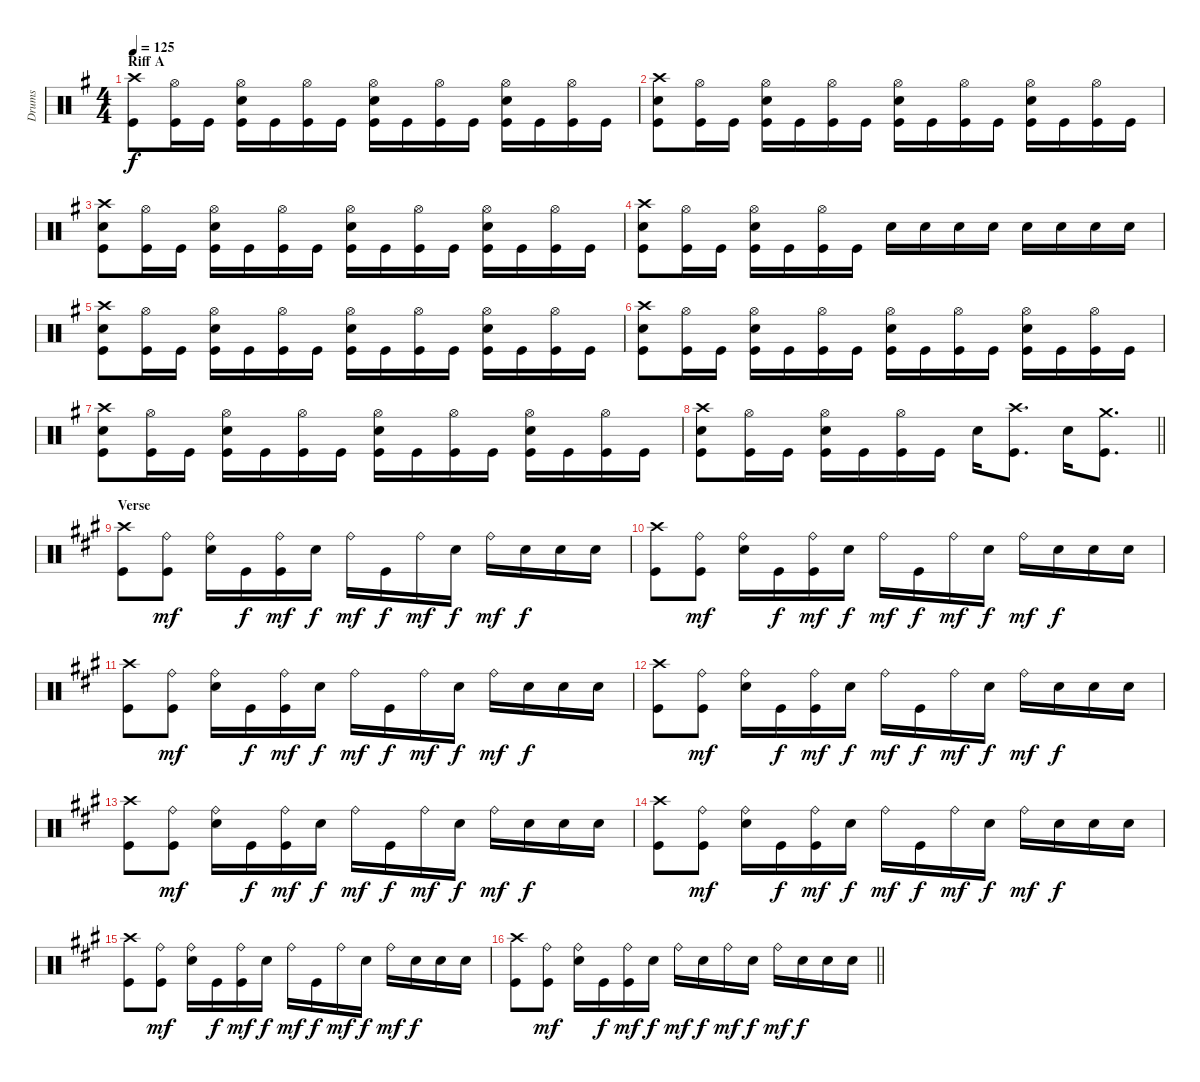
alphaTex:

\track ("Drums" "Drums") {instrument percussion}
\staff {score}
\articulation defaults
\ts (4 4)
\section ("" "Riff A")
\tempo 125
\clef neutral
\ks eminor
("Crash high (hit)" "Kick (hit)").8{dy f} ("Hi-Hat (open)" "Kick (hit)").16 "Kick (hit)".16 ("Hi-Hat (open)" "Snare (hit) 2" "Kick (hit)").16 "Kick (hit)".16 ("Hi-Hat (open)" "Kick (hit)").16 "Kick (hit)".16 ("Hi-Hat (open)" "Snare (hit) 2" "Kick (hit)").16 "Kick (hit)".16 ("Hi-Hat (open)" "Kick (hit)").16 "Kick (hit)".16 ("Hi-Hat (open)" "Snare (hit) 2" "Kick (hit)").16 "Kick (hit)".16 ("Hi-Hat (open)" "Kick (hit)").16 "Kick (hit)".16 |
("Crash high (hit)" "Snare (hit) 2" "Kick (hit)").8 ("Hi-Hat (open)" "Kick (hit)").16 "Kick (hit)".16 ("Hi-Hat (open)" "Snare (hit) 2" "Kick (hit)").16 "Kick (hit)".16 ("Hi-Hat (open)" "Kick (hit)").16 "Kick (hit)".16 ("Hi-Hat (open)" "Snare (hit) 2" "Kick (hit)").16 "Kick (hit)".16 ("Hi-Hat (open)" "Kick (hit)").16 "Kick (hit)".16 ("Hi-Hat (open)" "Snare (hit) 2" "Kick (hit)").16 "Kick (hit)".16 ("Hi-Hat (open)" "Kick (hit)").16 "Kick (hit)".16 |
("Crash high (hit)" "Snare (hit) 2" "Kick (hit)").8 ("Hi-Hat (open)" "Kick (hit)").16 "Kick (hit)".16 ("Hi-Hat (open)" "Snare (hit) 2" "Kick (hit)").16 "Kick (hit)".16 ("Hi-Hat (open)" "Kick (hit)").16 "Kick (hit)".16 ("Hi-Hat (open)" "Snare (hit) 2" "Kick (hit)").16 "Kick (hit)".16 ("Hi-Hat (open)" "Kick (hit)").16 "Kick (hit)".16 ("Hi-Hat (open)" "Snare (hit) 2" "Kick (hit)").16 "Kick (hit)".16 ("Hi-Hat (open)" "Kick (hit)").16 "Kick (hit)".16 |
("Crash high (hit)" "Snare (hit) 2" "Kick (hit)").8 ("Hi-Hat (open)" "Kick (hit)").16 "Kick (hit)".16 ("Hi-Hat (open)" "Snare (hit) 2" "Kick (hit)").16 "Kick (hit)".16 ("Hi-Hat (open)" "Kick (hit)").16 "Kick (hit)".16 "Snare (hit) 2".16 "Snare (hit) 2".16 "Snare (hit) 2".16 "Snare (hit) 2".16 "Snare (hit) 2".16 "Snare (hit) 2".16 "Snare (hit) 2".16 "Snare (hit) 2".16 |
("Crash high (hit)" "Snare (hit) 2" "Kick (hit)").8 ("Hi-Hat (open)" "Kick (hit)").16 "Kick (hit)".16 ("Hi-Hat (open)" "Snare (hit) 2" "Kick (hit)").16 "Kick (hit)".16 ("Hi-Hat (open)" "Kick (hit)").16 "Kick (hit)".16 ("Hi-Hat (open)" "Snare (hit) 2" "Kick (hit)").16 "Kick (hit)".16 ("Hi-Hat (open)" "Kick (hit)").16 "Kick (hit)".16 ("Hi-Hat (open)" "Snare (hit) 2" "Kick (hit)").16 "Kick (hit)".16 ("Hi-Hat (open)" "Kick (hit)").16 "Kick (hit)".16 |
("Crash high (hit)" "Snare (hit) 2" "Kick (hit)").8 ("Hi-Hat (open)" "Kick (hit)").16 "Kick (hit)".16 ("Hi-Hat (open)" "Snare (hit) 2" "Kick (hit)").16 "Kick (hit)".16 ("Hi-Hat (open)" "Kick (hit)").16 "Kick (hit)".16 ("Hi-Hat (open)" "Snare (hit) 2" "Kick (hit)").16 "Kick (hit)".16 ("Hi-Hat (open)" "Kick (hit)").16 "Kick (hit)".16 ("Hi-Hat (open)" "Snare (hit) 2" "Kick (hit)").16 "Kick (hit)".16 ("Hi-Hat (open)" "Kick (hit)").16 "Kick (hit)".16 |
("Crash high (hit)" "Snare (hit) 2" "Kick (hit)").8 ("Hi-Hat (open)" "Kick (hit)").16 "Kick (hit)".16 ("Hi-Hat (open)" "Snare (hit) 2" "Kick (hit)").16 "Kick (hit)".16 ("Hi-Hat (open)" "Kick (hit)").16 "Kick (hit)".16 ("Hi-Hat (open)" "Snare (hit) 2" "Kick (hit)").16 "Kick (hit)".16 ("Hi-Hat (open)" "Kick (hit)").16 "Kick (hit)".16 ("Hi-Hat (open)" "Snare (hit) 2" "Kick (hit)").16 "Kick (hit)".16 ("Hi-Hat (open)" "Kick (hit)").16 "Kick (hit)".16 |
\barLineRight lightlight
("Crash high (hit)" "Snare (hit) 2" "Kick (hit)").8 ("Hi-Hat (open)" "Kick (hit)").16 "Kick (hit)".16 ("Hi-Hat (open)" "Snare (hit) 2" "Kick (hit)").16 "Kick (hit)".16 ("Hi-Hat (open)" "Kick (hit)").16 "Kick (hit)".16 "Snare (hit) 2".16 ("Crash high (hit)" "Kick (hit)").8{d} "Snare (hit) 2".16 ("Crash medium (hit)" "Kick (hit)").8{d} |
\section ("" "Verse")
\ks f#minor
("Crash high (hit)" "Kick (hit)").8 ("Ride (bell)" "Kick (hit)").8{dy mf} ("Ride (bell)" "Snare (hit) 2").16 "Kick (hit)".16{dy f} ("Ride (bell)" "Kick (hit)").16{dy mf} "Snare (hit) 2".16{dy f} "Ride (bell)".16{dy mf} "Kick (hit)".16{dy f} "Ride (bell)".16{dy mf} "Snare (hit) 2".16{dy f} "Ride (bell)".16{dy mf} "Snare (hit) 2".16{dy f} "Snare (hit) 2".16 "Snare (hit) 2".16 |
("Crash high (hit)" "Kick (hit)").8 ("Ride (bell)" "Kick (hit)").8{dy mf} ("Ride (bell)" "Snare (hit) 2").16 "Kick (hit)".16{dy f} ("Ride (bell)" "Kick (hit)").16{dy mf} "Snare (hit) 2".16{dy f} "Ride (bell)".16{dy mf} "Kick (hit)".16{dy f} "Ride (bell)".16{dy mf} "Snare (hit) 2".16{dy f} "Ride (bell)".16{dy mf} "Snare (hit) 2".16{dy f} "Snare (hit) 2".16 "Snare (hit) 2".16 |
("Crash high (hit)" "Kick (hit)").8 ("Ride (bell)" "Kick (hit)").8{dy mf} ("Ride (bell)" "Snare (hit) 2").16 "Kick (hit)".16{dy f} ("Ride (bell)" "Kick (hit)").16{dy mf} "Snare (hit) 2".16{dy f} "Ride (bell)".16{dy mf} "Kick (hit)".16{dy f} "Ride (bell)".16{dy mf} "Snare (hit) 2".16{dy f} "Ride (bell)".16{dy mf} "Snare (hit) 2".16{dy f} "Snare (hit) 2".16 "Snare (hit) 2".16 |
("Crash high (hit)" "Kick (hit)").8 ("Ride (bell)" "Kick (hit)").8{dy mf} ("Ride (bell)" "Snare (hit) 2").16 "Kick (hit)".16{dy f} ("Ride (bell)" "Kick (hit)").16{dy mf} "Snare (hit) 2".16{dy f} "Ride (bell)".16{dy mf} "Kick (hit)".16{dy f} "Ride (bell)".16{dy mf} "Snare (hit) 2".16{dy f} "Ride (bell)".16{dy mf} "Snare (hit) 2".16{dy f} "Snare (hit) 2".16 "Snare (hit) 2".16 |
("Crash high (hit)" "Kick (hit)").8 ("Ride (bell)" "Kick (hit)").8{dy mf} ("Ride (bell)" "Snare (hit) 2").16 "Kick (hit)".16{dy f} ("Ride (bell)" "Kick (hit)").16{dy mf} "Snare (hit) 2".16{dy f} "Ride (bell)".16{dy mf} "Kick (hit)".16{dy f} "Ride (bell)".16{dy mf} "Snare (hit) 2".16{dy f} "Ride (bell)".16{dy mf} "Snare (hit) 2".16{dy f} "Snare (hit) 2".16 "Snare (hit) 2".16 |
("Crash high (hit)" "Kick (hit)").8 ("Ride (bell)" "Kick (hit)").8{dy mf} ("Ride (bell)" "Snare (hit) 2").16 "Kick (hit)".16{dy f} ("Ride (bell)" "Kick (hit)").16{dy mf} "Snare (hit) 2".16{dy f} "Ride (bell)".16{dy mf} "Kick (hit)".16{dy f} "Ride (bell)".16{dy mf} "Snare (hit) 2".16{dy f} "Ride (bell)".16{dy mf} "Snare (hit) 2".16{dy f} "Snare (hit) 2".16 "Snare (hit) 2".16 |
("Crash high (hit)" "Kick (hit)").8 ("Ride (bell)" "Kick (hit)").8{dy mf} ("Ride (bell)" "Snare (hit) 2").16 "Kick (hit)".16{dy f} ("Ride (bell)" "Kick (hit)").16{dy mf} "Snare (hit) 2".16{dy f} "Ride (bell)".16{dy mf} "Kick (hit)".16{dy f} "Ride (bell)".16{dy mf} "Snare (hit) 2".16{dy f} "Ride (bell)".16{dy mf} "Snare (hit) 2".16{dy f} "Snare (hit) 2".16 "Snare (hit) 2".16 |
\barLineRight lightlight
("Crash high (hit)" "Kick (hit)").8 ("Ride (bell)" "Kick (hit)").8{dy mf} ("Ride (bell)" "Snare (hit) 2").16 "Kick (hit)".16{dy f} ("Ride (bell)" "Kick (hit)").16{dy mf} "Snare (hit) 2".16{dy f} "Ride (bell)".16{dy mf} "Snare (hit) 2".16{dy f} "Ride (bell)".16{dy mf} "Snare (hit) 2".16{dy f} "Ride (bell)".16{dy mf} "Snare (hit) 2".16{dy f} "Snare (hit) 2".16 "Snare (hit) 2".16
